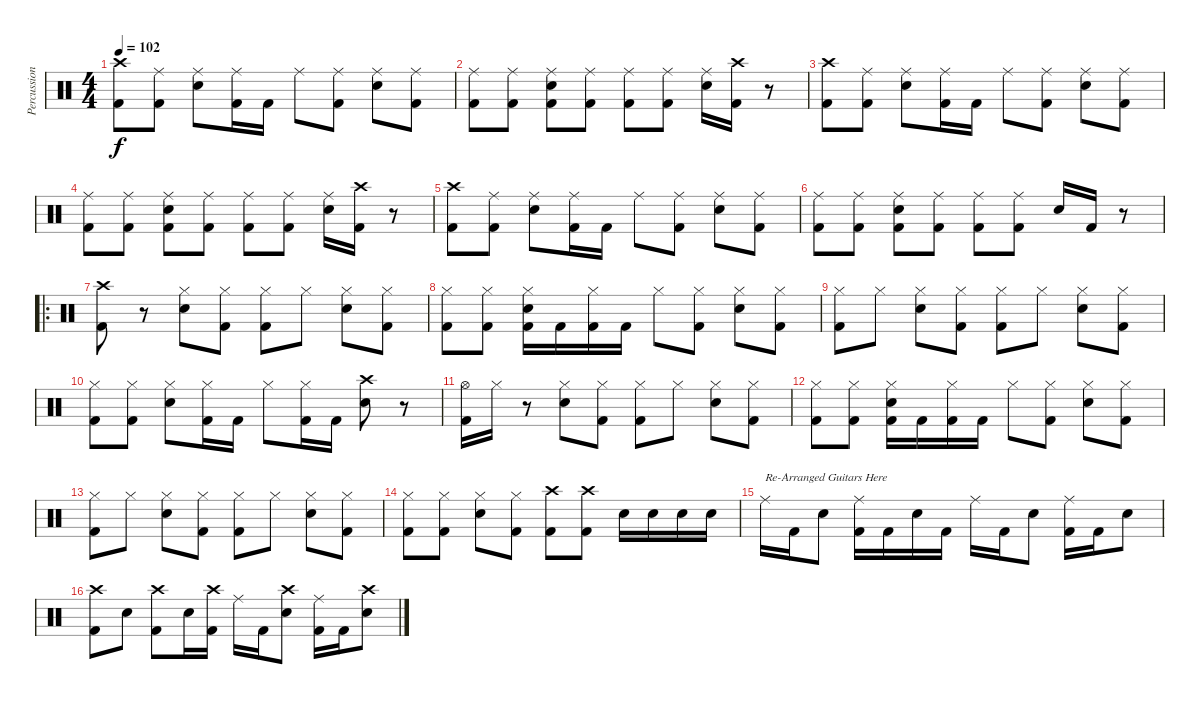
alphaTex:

\track ("Percussion" "Percussion") {instrument percussion}
\staff {score}
\articulation defaults
\ts (4 4)
\tempo 102
\clef neutral
\ks c
("Kick (hit) 2" "Crash high (hit)").8{dy f} ("Kick (hit) 2" "Ride (middle)").8 ("Snare (hit) 2" "Ride (middle)").8 ("Kick (hit) 2" "Ride (middle)").16 "Kick (hit) 2".16 "Ride (middle)".8 ("Kick (hit) 2" "Ride (middle)").8 ("Snare (hit) 2" "Ride (middle)").8 ("Kick (hit) 2" "Ride (middle)").8 |
("Kick (hit) 2" "Ride (middle)").8 ("Kick (hit) 2" "Ride (middle)").8 ("Snare (hit) 2" "Kick (hit) 2" "Ride (middle)").8 ("Kick (hit) 2" "Ride (middle)").8 ("Kick (hit) 2" "Ride (middle)").8 ("Kick (hit) 2" "Ride (middle)").8 ("Snare (hit) 2" "Ride (middle)").16 ("Kick (hit) 2" "Crash high (hit)").16 r.8 |
("Kick (hit) 2" "Crash high (hit)").8 ("Kick (hit) 2" "Ride (middle)").8 ("Snare (hit) 2" "Ride (middle)").8 ("Kick (hit) 2" "Ride (middle)").16 "Kick (hit) 2".16 "Ride (middle)".8 ("Kick (hit) 2" "Ride (middle)").8 ("Snare (hit) 2" "Ride (middle)").8 ("Kick (hit) 2" "Ride (middle)").8 |
("Kick (hit) 2" "Ride (middle)").8 ("Kick (hit) 2" "Ride (middle)").8 ("Snare (hit) 2" "Kick (hit) 2" "Ride (middle)").8 ("Kick (hit) 2" "Ride (middle)").8 ("Kick (hit) 2" "Ride (middle)").8 ("Kick (hit) 2" "Ride (middle)").8 ("Snare (hit) 2" "Ride (middle)").16 ("Kick (hit) 2" "Crash high (hit)").16 r.8 |
("Kick (hit) 2" "Crash high (hit)").8 ("Kick (hit) 2" "Ride (middle)").8 ("Snare (hit) 2" "Ride (middle)").8 ("Kick (hit) 2" "Ride (middle)").16 "Kick (hit) 2".16 "Ride (middle)".8 ("Kick (hit) 2" "Ride (middle)").8 ("Snare (hit) 2" "Ride (middle)").8 ("Kick (hit) 2" "Ride (middle)").8 |
("Kick (hit) 2" "Ride (middle)").8 ("Kick (hit) 2" "Ride (middle)").8 ("Snare (hit) 2" "Kick (hit) 2" "Ride (middle)").8 ("Kick (hit) 2" "Ride (middle)").8 ("Kick (hit) 2" "Ride (middle)").8 ("Kick (hit) 2" "Ride (middle)").8 "Electric Snare (hit)".16 "Kick (hit) 2".16 r.8 |
\ro
("Kick (hit) 2" "Crash high (hit)").8 r.8 ("Snare (hit) 2" "Hi-Hat (closed)").8 ("Kick (hit) 2" "Hi-Hat (closed)").8 ("Kick (hit) 2" "Hi-Hat (closed)").8 "Hi-Hat (closed)".8 ("Snare (hit) 2" "Hi-Hat (closed)").8 ("Kick (hit) 2" "Hi-Hat (closed)").8 |
("Kick (hit) 2" "Hi-Hat (closed)").8 ("Kick (hit) 2" "Hi-Hat (closed)").8 ("Snare (hit) 2" "Kick (hit) 2" "Hi-Hat (closed)").16 "Kick (hit) 2".16 ("Kick (hit) 2" "Hi-Hat (closed)").16 "Kick (hit) 2".16 "Hi-Hat (closed)".8 ("Kick (hit) 2" "Hi-Hat (closed)").8 ("Snare (hit) 2" "Hi-Hat (closed)").8 ("Kick (hit) 2" "Hi-Hat (closed)").8 |
("Kick (hit) 2" "Hi-Hat (closed)").8 "Hi-Hat (closed)".8 ("Snare (hit) 2" "Hi-Hat (closed)").8 ("Kick (hit) 2" "Hi-Hat (closed)").8 ("Kick (hit) 2" "Hi-Hat (closed)").8 "Hi-Hat (closed)".8 ("Snare (hit) 2" "Hi-Hat (closed)").8 ("Kick (hit) 2" "Hi-Hat (closed)").8 |
("Kick (hit) 2" "Hi-Hat (closed)").8 ("Kick (hit) 2" "Hi-Hat (closed)").8 ("Snare (hit) 2" "Hi-Hat (closed)").8 ("Kick (hit) 2" "Hi-Hat (closed)").16 "Kick (hit) 2".16 "Hi-Hat (closed)".8 ("Kick (hit) 2" "Hi-Hat (closed)").16 "Kick (hit) 2".16 ("Snare (hit) 2" "Crash high (hit)").8 r.8 |
("Kick (hit) 2" "Hi-Hat (open)").16 "Hi-Hat (closed)".16 r.8 ("Snare (hit) 2" "Hi-Hat (closed)").8 ("Kick (hit) 2" "Hi-Hat (closed)").8 ("Kick (hit) 2" "Hi-Hat (closed)").8 "Hi-Hat (closed)".8 ("Snare (hit) 2" "Hi-Hat (closed)").8 ("Kick (hit) 2" "Hi-Hat (closed)").8 |
("Kick (hit) 2" "Hi-Hat (closed)").8 ("Kick (hit) 2" "Hi-Hat (closed)").8 ("Snare (hit) 2" "Kick (hit) 2" "Hi-Hat (closed)").16 "Kick (hit) 2".16 ("Kick (hit) 2" "Hi-Hat (closed)").16 "Kick (hit) 2".16 "Hi-Hat (closed)".8 ("Kick (hit) 2" "Hi-Hat (closed)").8 ("Snare (hit) 2" "Hi-Hat (closed)").8 ("Kick (hit) 2" "Hi-Hat (closed)").8 |
("Kick (hit) 2" "Hi-Hat (closed)").8 "Hi-Hat (closed)".8 ("Snare (hit) 2" "Hi-Hat (closed)").8 ("Kick (hit) 2" "Hi-Hat (closed)").8 ("Kick (hit) 2" "Hi-Hat (closed)").8 "Hi-Hat (closed)".8 ("Snare (hit) 2" "Hi-Hat (closed)").8 ("Kick (hit) 2" "Hi-Hat (closed)").8 |
("Kick (hit) 2" "Hi-Hat (closed)").8 ("Kick (hit) 2" "Hi-Hat (closed)").8 ("Snare (hit) 2" "Hi-Hat (closed)").8 ("Kick (hit) 2" "Hi-Hat (closed)").8 ("Kick (hit) 2" "Crash high (hit)").8 ("Kick (hit) 2" "Crash high (hit)").8 "Snare (hit) 2".16 "Snare (hit) 2".16 "Snare (hit) 2".16 "Snare (hit) 2".16 |
"Ride (middle)".16{txt "Re-Arranged Guitars Here"} "Kick (hit) 2".16 "Snare (hit) 2".8 ("Kick (hit) 2" "Ride (middle)").16 "Kick (hit) 2".16 "Snare (hit) 2".16 "Kick (hit) 2".16 "Ride (middle)".16 "Kick (hit) 2".16 "Snare (hit) 2".8 ("Kick (hit) 2" "Ride (middle)").16 "Kick (hit) 2".16 "Snare (hit) 2".8 |
("Kick (hit) 2" "Crash high (hit)").8 "Snare (hit) 2".8 ("Kick (hit) 2" "Crash high (hit)").8 "Snare (hit) 2".16 ("Kick (hit) 2" "Crash high (hit)").16 "Ride (middle)".16 "Kick (hit) 2".16 ("Snare (hit) 2" "Crash high (hit)").8 ("Kick (hit) 2" "Ride (middle)").16 "Kick (hit) 2".16 ("Snare (hit) 2" "Crash high (hit)").8
